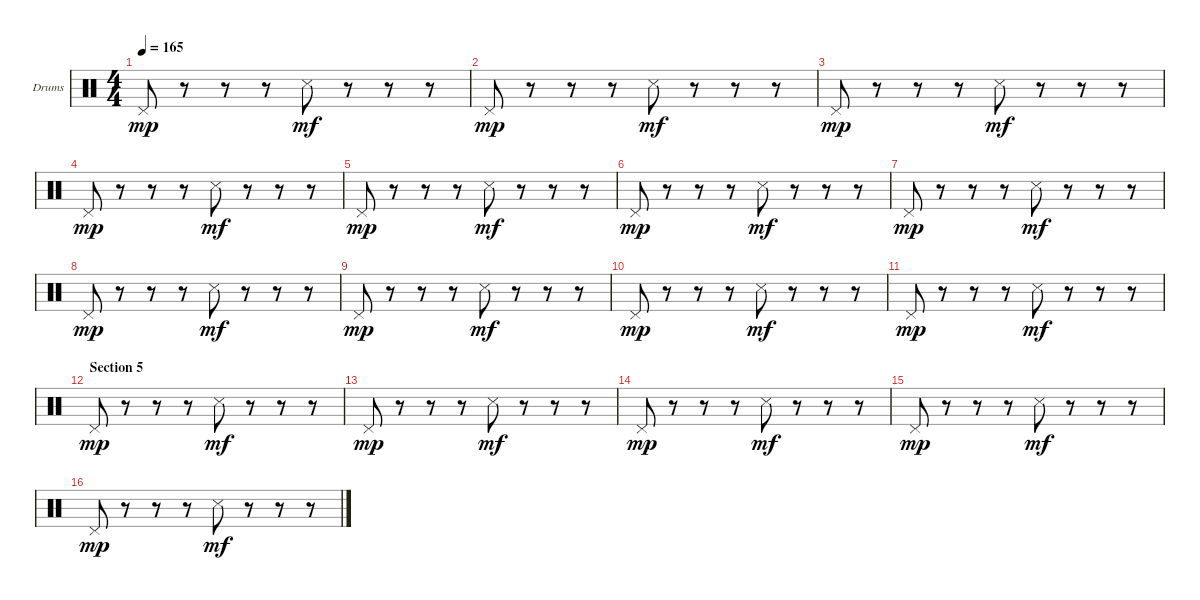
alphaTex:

\bracketExtendMode groupsimilarinstruments
\firstSystemTrackNameOrientation horizontal
\otherSystemsTrackNameOrientation horizontal
\track ("Drumkit" "Drums") {instrument percussion}
\staff {score}
\articulation defaults
\ts (4 4)
\tempo 165
\clef neutral
\ks c "Pedal Hi-Hat (hit)".8{dy mp}
r.8 r.8 r.8 "Snare (side stick) 3".8{dy mf} r.8 r.8 r.8 |
"Pedal Hi-Hat (hit)".8{dy mp} r.8 r.8 r.8 "Snare (side stick) 3".8{dy mf} r.8 r.8 r.8 |
"Pedal Hi-Hat (hit)".8{dy mp} r.8 r.8 r.8 "Snare (side stick) 3".8{dy mf} r.8 r.8 r.8 |
"Pedal Hi-Hat (hit)".8{dy mp} r.8 r.8 r.8 "Snare (side stick) 3".8{dy mf} r.8 r.8 r.8 |
"Pedal Hi-Hat (hit)".8{dy mp} r.8 r.8 r.8 "Snare (side stick) 3".8{dy mf} r.8 r.8 r.8 |
"Pedal Hi-Hat (hit)".8{dy mp} r.8 r.8 r.8 "Snare (side stick) 3".8{dy mf} r.8 r.8 r.8 |
"Pedal Hi-Hat (hit)".8{dy mp} r.8 r.8 r.8 "Snare (side stick) 3".8{dy mf} r.8 r.8 r.8 |
"Pedal Hi-Hat (hit)".8{dy mp} r.8 r.8 r.8 "Snare (side stick) 3".8{dy mf} r.8 r.8 r.8 |
"Pedal Hi-Hat (hit)".8{dy mp} r.8 r.8 r.8 "Snare (side stick) 3".8{dy mf} r.8 r.8 r.8 |
"Pedal Hi-Hat (hit)".8{dy mp} r.8 r.8 r.8 "Snare (side stick) 3".8{dy mf} r.8 r.8 r.8 |
"Pedal Hi-Hat (hit)".8{dy mp} r.8 r.8 r.8 "Snare (side stick) 3".8{dy mf} r.8 r.8 r.8 |
\section ("" "Section 5")
"Pedal Hi-Hat (hit)".8{dy mp} r.8 r.8 r.8 "Snare (side stick) 3".8{dy mf} r.8 r.8 r.8 |
"Pedal Hi-Hat (hit)".8{dy mp} r.8 r.8 r.8 "Snare (side stick) 3".8{dy mf} r.8 r.8 r.8 |
"Pedal Hi-Hat (hit)".8{dy mp} r.8 r.8 r.8 "Snare (side stick) 3".8{dy mf} r.8 r.8 r.8 |
"Pedal Hi-Hat (hit)".8{dy mp} r.8 r.8 r.8 "Snare (side stick) 3".8{dy mf} r.8 r.8 r.8 |
"Pedal Hi-Hat (hit)".8{dy mp} r.8 r.8 r.8 "Snare (side stick) 3".8{dy mf} r.8 r.8 r.8
